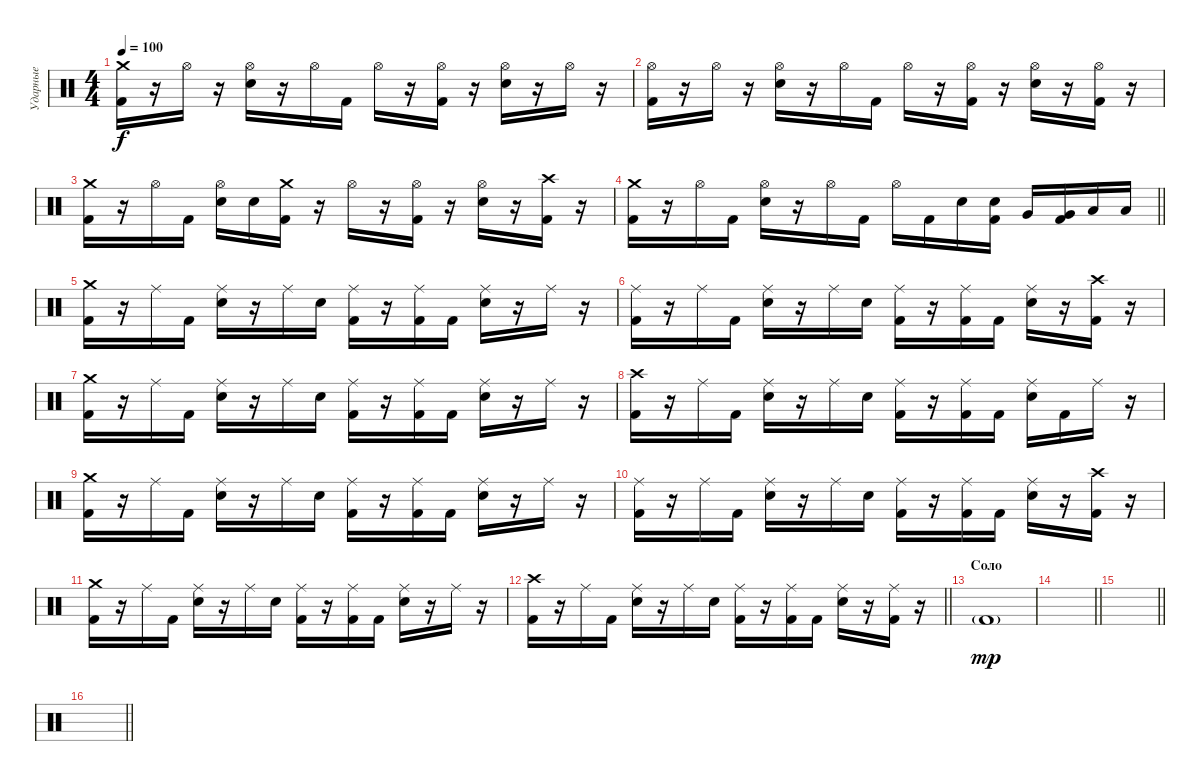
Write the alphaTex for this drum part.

\track ("Ударные" "Ударные") {instrument percussion}
\staff {score}
\articulation defaults
\ts (4 4)
\tempo 100
\clef neutral
\ks c
("Crash medium (hit)" "Kick (hit) 2").16{dy f} r.16 "Hi-Hat (open)".16 r.16 ("Hi-Hat (open)" "Snare (hit) 2").16 r.16 "Hi-Hat (open)".16 "Kick (hit) 2".16 "Hi-Hat (open)".16 r.16 ("Hi-Hat (open)" "Kick (hit) 2").16 r.16 ("Hi-Hat (open)" "Snare (hit) 2").16 r.16 "Hi-Hat (open)".16 r.16 |
("Hi-Hat (open)" "Kick (hit) 2").16 r.16 "Hi-Hat (open)".16 r.16 ("Hi-Hat (open)" "Snare (hit) 2").16 r.16 "Hi-Hat (open)".16 "Kick (hit) 2".16 "Hi-Hat (open)".16 r.16 ("Hi-Hat (open)" "Kick (hit) 2").16 r.16 ("Hi-Hat (open)" "Snare (hit) 2").16 r.16 ("Hi-Hat (open)" "Kick (hit) 2").16 r.16 |
("Crash medium (hit)" "Kick (hit) 2").16 r.16 "Hi-Hat (open)".16 "Kick (hit) 2".16 ("Hi-Hat (open)" "Snare (hit) 2").16 "Snare (hit) 2".16 ("Crash medium (hit)" "Kick (hit) 2").16 r.16 "Hi-Hat (open)".16 r.16 ("Hi-Hat (open)" "Kick (hit) 2").16 r.16 ("Hi-Hat (open)" "Snare (hit) 2").16 r.16 ("Crash high (hit)" "Kick (hit) 2").16 r.16 |
\barLineRight lightlight
("Crash medium (hit)" "Kick (hit) 2").16 r.16 "Hi-Hat (open)".16 "Kick (hit) 2".16 ("Hi-Hat (open)" "Snare (hit) 2").16 r.16 "Hi-Hat (open)".16 "Kick (hit) 2".16 "Hi-Hat (open)".16 "Kick (hit) 2".16 "Snare (hit) 2".16 ("Snare (hit) 2" "Kick (hit) 2").16 "Very Low Tom (hit)".16 ("Very Low Tom (hit)" "Kick (hit) 2").16 "Low Tom (hit)".16 "Low Tom (hit)".16 |
("Crash medium (hit)" "Kick (hit) 2").16 r.16 "Ride (middle)".16 "Kick (hit) 2".16 ("Ride (middle)" "Snare (hit) 2").16 r.16 "Ride (middle)".16 "Snare (hit) 2".16 ("Ride (middle)" "Kick (hit) 2").16 r.16 ("Ride (middle)" "Kick (hit) 2").16 "Kick (hit) 2".16 ("Ride (middle)" "Snare (hit) 2").16 r.16 "Ride (middle)".16 r.16 |
("Ride (middle)" "Kick (hit) 2").16 r.16 "Ride (middle)".16 "Kick (hit) 2".16 ("Ride (middle)" "Snare (hit) 2").16 r.16 "Ride (middle)".16 "Snare (hit) 2".16 ("Ride (middle)" "Kick (hit) 2").16 r.16 ("Ride (middle)" "Kick (hit) 2").16 "Kick (hit) 2".16 ("Ride (middle)" "Snare (hit) 2").16 r.16 ("Crash high (hit)" "Kick (hit) 2").16 r.16 |
("Crash medium (hit)" "Kick (hit) 2").16 r.16 "Ride (middle)".16 "Kick (hit) 2".16 ("Ride (middle)" "Snare (hit) 2").16 r.16 "Ride (middle)".16 "Snare (hit) 2".16 ("Ride (middle)" "Kick (hit) 2").16 r.16 ("Ride (middle)" "Kick (hit) 2").16 "Kick (hit) 2".16 ("Ride (middle)" "Snare (hit) 2").16 r.16 "Ride (middle)".16 r.16 |
("Crash high (hit)" "Kick (hit) 2").16 r.16 "Ride (middle)".16 "Kick (hit) 2".16 ("Ride (middle)" "Snare (hit) 2").16 r.16 "Ride (middle)".16 "Snare (hit) 2".16 ("Ride (middle)" "Kick (hit) 2").16 r.16 ("Ride (middle)" "Kick (hit) 2").16 "Kick (hit) 2".16 ("Ride (middle)" "Snare (hit) 2").16 "Kick (hit) 2".16 "Ride (middle)".16 r.16 |
("Crash medium (hit)" "Kick (hit) 2").16 r.16 "Ride (middle)".16 "Kick (hit) 2".16 ("Ride (middle)" "Snare (hit) 2").16 r.16 "Ride (middle)".16 "Snare (hit) 2".16 ("Ride (middle)" "Kick (hit) 2").16 r.16 ("Ride (middle)" "Kick (hit) 2").16 "Kick (hit) 2".16 ("Ride (middle)" "Snare (hit) 2").16 r.16 "Ride (middle)".16 r.16 |
("Ride (middle)" "Kick (hit) 2").16 r.16 "Ride (middle)".16 "Kick (hit) 2".16 ("Ride (middle)" "Snare (hit) 2").16 r.16 "Ride (middle)".16 "Snare (hit) 2".16 ("Ride (middle)" "Kick (hit) 2").16 r.16 ("Ride (middle)" "Kick (hit) 2").16 "Kick (hit) 2".16 ("Ride (middle)" "Snare (hit) 2").16 r.16 ("Crash high (hit)" "Kick (hit) 2").16 r.16 |
("Crash medium (hit)" "Kick (hit) 2").16 r.16 "Ride (middle)".16 "Kick (hit) 2".16 ("Ride (middle)" "Snare (hit) 2").16 r.16 "Ride (middle)".16 "Snare (hit) 2".16 ("Ride (middle)" "Kick (hit) 2").16 r.16 ("Ride (middle)" "Kick (hit) 2").16 "Kick (hit) 2".16 ("Ride (middle)" "Snare (hit) 2").16 r.16 "Ride (middle)".16 r.16 |
\barLineRight lightlight
("Crash high (hit)" "Kick (hit) 2").16 r.16 "Ride (middle)".16 "Kick (hit) 2".16 ("Ride (middle)" "Snare (hit) 2").16 r.16 "Ride (middle)".16 "Snare (hit) 2".16 ("Ride (middle)" "Kick (hit) 2").16 r.16 ("Ride (middle)" "Kick (hit) 2").16 "Kick (hit) 2".16 ("Ride (middle)" "Snare (hit) 2").16 r.16 ("Ride (middle)" "Kick (hit) 2").16 r.16 |
\section ("" "Соло")
"Kick (hit) 2"{g}.1{dy mp} |
\barLineRight lightlight
|
\barLineRight lightlight
|
\barLineRight lightlight
